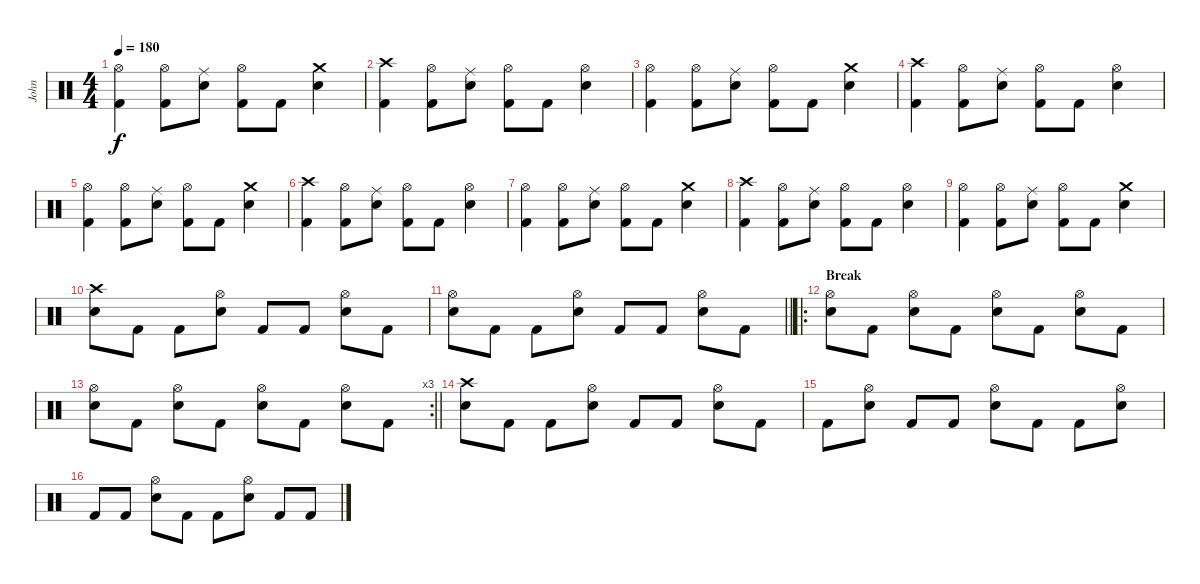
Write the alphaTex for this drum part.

\track ("John" "John") {instrument percussion}
\staff {score}
\articulation defaults
\ts (4 4)
\tempo 180
\clef neutral
\ks c
("Hi-Hat (open)" "Kick (hit) 2").4{dy f} ("Hi-Hat (open)" "Kick (hit) 2").8 ("Ride (middle)" "Snare (hit) 2").8 ("Hi-Hat (open)" "Kick (hit) 2").8 "Kick (hit) 2".8 ("Crash medium (hit)" "Snare (hit) 2").4 |
("Crash high (hit)" "Kick (hit) 2").4 ("Hi-Hat (open)" "Kick (hit) 2").8 ("Ride (middle)" "Snare (hit) 2").8 ("Hi-Hat (open)" "Kick (hit) 2").8 "Kick (hit) 2".8 ("Hi-Hat (open)" "Snare (hit) 2").4 |
("Hi-Hat (open)" "Kick (hit) 2").4 ("Hi-Hat (open)" "Kick (hit) 2").8 ("Ride (middle)" "Snare (hit) 2").8 ("Hi-Hat (open)" "Kick (hit) 2").8 "Kick (hit) 2".8 ("Crash medium (hit)" "Snare (hit) 2").4 |
("Crash high (hit)" "Kick (hit) 2").4 ("Hi-Hat (open)" "Kick (hit) 2").8 ("Ride (middle)" "Snare (hit) 2").8 ("Hi-Hat (open)" "Kick (hit) 2").8 "Kick (hit) 2".8 ("Hi-Hat (open)" "Snare (hit) 2").4 |
("Hi-Hat (open)" "Kick (hit) 2").4 ("Hi-Hat (open)" "Kick (hit) 2").8 ("Ride (middle)" "Snare (hit) 2").8 ("Hi-Hat (open)" "Kick (hit) 2").8 "Kick (hit) 2".8 ("Crash medium (hit)" "Snare (hit) 2").4 |
("Crash high (hit)" "Kick (hit) 2").4 ("Hi-Hat (open)" "Kick (hit) 2").8 ("Ride (middle)" "Snare (hit) 2").8 ("Hi-Hat (open)" "Kick (hit) 2").8 "Kick (hit) 2".8 ("Hi-Hat (open)" "Snare (hit) 2").4 |
("Hi-Hat (open)" "Kick (hit) 2").4 ("Hi-Hat (open)" "Kick (hit) 2").8 ("Ride (middle)" "Snare (hit) 2").8 ("Hi-Hat (open)" "Kick (hit) 2").8 "Kick (hit) 2".8 ("Crash medium (hit)" "Snare (hit) 2").4 |
("Crash high (hit)" "Kick (hit) 2").4 ("Hi-Hat (open)" "Kick (hit) 2").8 ("Ride (middle)" "Snare (hit) 2").8 ("Hi-Hat (open)" "Kick (hit) 2").8 "Kick (hit) 2".8 ("Hi-Hat (open)" "Snare (hit) 2").4 |
("Hi-Hat (open)" "Kick (hit) 2").4 ("Hi-Hat (open)" "Kick (hit) 2").8 ("Ride (middle)" "Snare (hit) 2").8 ("Hi-Hat (open)" "Kick (hit) 2").8 "Kick (hit) 2".8 ("Crash medium (hit)" "Snare (hit) 2").4 |
("Crash high (hit)" "Snare (hit) 2").8 "Kick (hit) 2".8 "Kick (hit) 2".8 ("Hi-Hat (open)" "Snare (hit) 2").8 "Kick (hit) 2".8 "Kick (hit) 2".8 ("Hi-Hat (open)" "Snare (hit) 2").8 "Kick (hit) 2".8 |
\barLineRight lightlight
("Hi-Hat (open)" "Snare (hit) 2").8 "Kick (hit) 2".8 "Kick (hit) 2".8 ("Hi-Hat (open)" "Snare (hit) 2").8 "Kick (hit) 2".8 "Kick (hit) 2".8 ("Hi-Hat (open)" "Snare (hit) 2").8 "Kick (hit) 2".8 |
\ro
\section ("" "Break")
("Hi-Hat (open)" "Snare (hit) 2").8 "Kick (hit) 2".8 ("Hi-Hat (open)" "Snare (hit) 2").8 "Kick (hit) 2".8 ("Hi-Hat (open)" "Snare (hit) 2").8 "Kick (hit) 2".8 ("Hi-Hat (open)" "Snare (hit) 2").8 "Kick (hit) 2".8 |
\rc 3
\barLineRight lightlight
("Hi-Hat (open)" "Snare (hit) 2").8 "Kick (hit) 2".8 ("Hi-Hat (open)" "Snare (hit) 2").8 "Kick (hit) 2".8 ("Hi-Hat (open)" "Snare (hit) 2").8 "Kick (hit) 2".8 ("Hi-Hat (open)" "Snare (hit) 2").8 "Kick (hit) 2".8 |
("Crash high (hit)" "Snare (hit) 2").8 "Kick (hit) 2".8 "Kick (hit) 2".8 ("Hi-Hat (open)" "Snare (hit) 2").8 "Kick (hit) 2".8 "Kick (hit) 2".8 ("Hi-Hat (open)" "Snare (hit) 2").8 "Kick (hit) 2".8 |
"Kick (hit) 2".8 ("Hi-Hat (open)" "Snare (hit) 2").8 "Kick (hit) 2".8 "Kick (hit) 2".8 ("Hi-Hat (open)" "Snare (hit) 2").8 "Kick (hit) 2".8 "Kick (hit) 2".8 ("Hi-Hat (open)" "Snare (hit) 2").8 |
"Kick (hit) 2".8 "Kick (hit) 2".8 ("Hi-Hat (open)" "Snare (hit) 2").8 "Kick (hit) 2".8 "Kick (hit) 2".8 ("Hi-Hat (open)" "Snare (hit) 2").8 "Kick (hit) 2".8 "Kick (hit) 2".8
